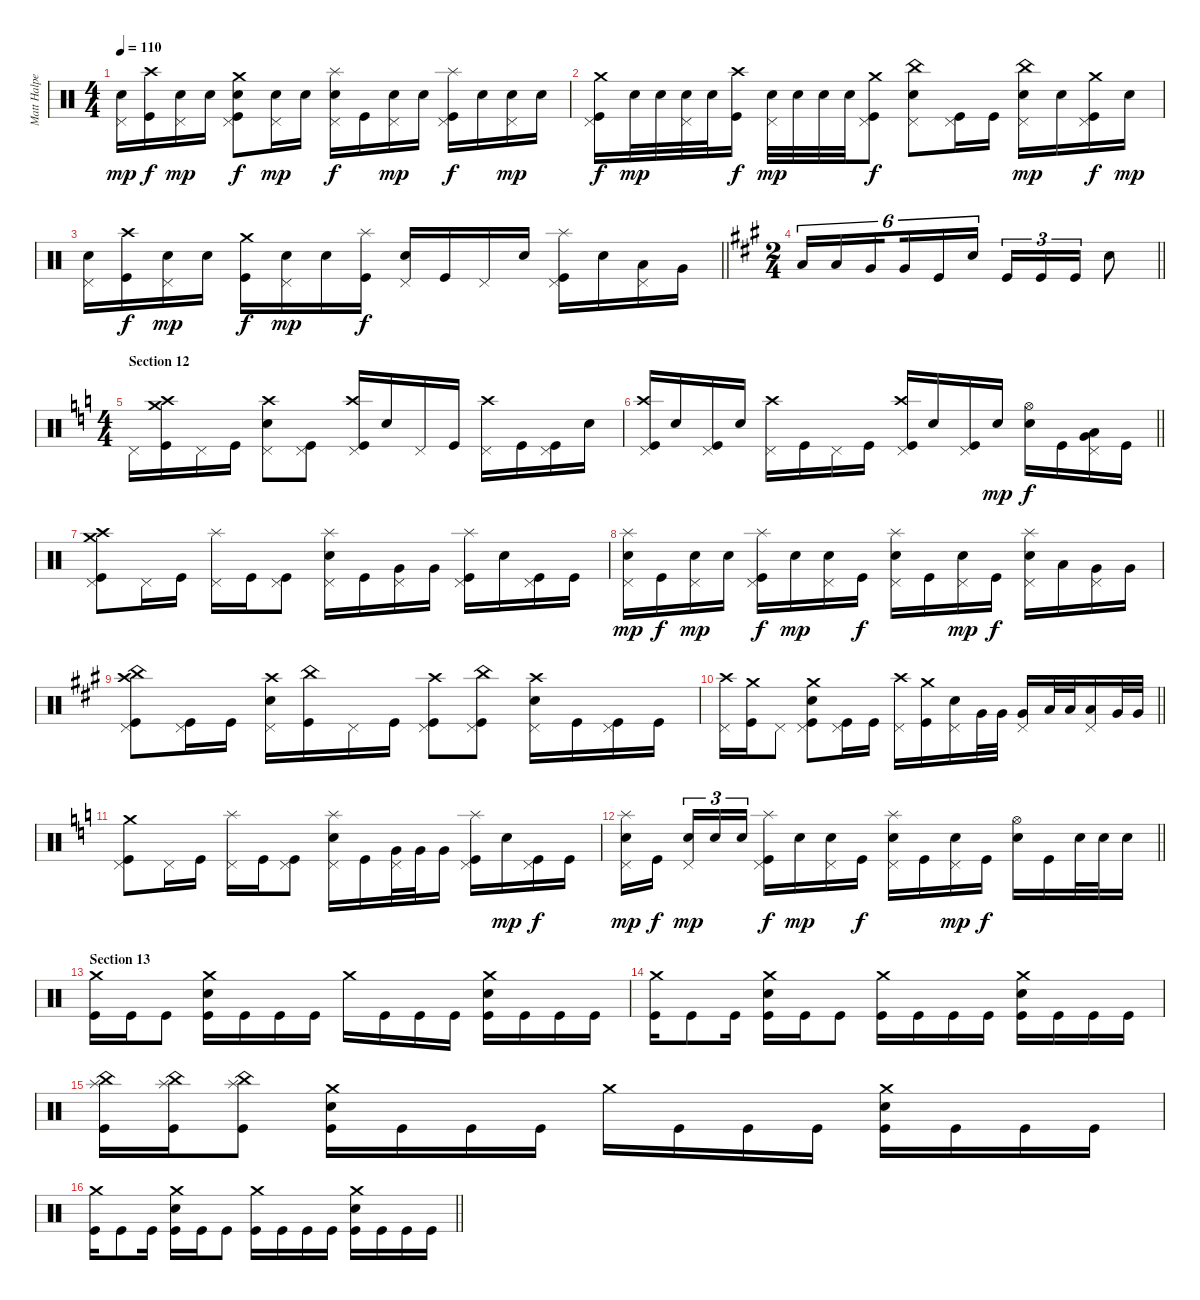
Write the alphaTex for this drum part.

\track ("Matt Halpern" "Matt Halpe") {instrument percussion}
\staff {score}
\articulation defaults
\ts (4 4)
\tempo 110
\clef neutral
\ks c
("Electric Snare (hit)" "Pedal Hi-Hat (hit)").16{dy mp} ("Crash high (hit)" "Kick (hit)").16{dy f} ("Electric Snare (hit)" "Pedal Hi-Hat (hit)").16{dy mp} "Electric Snare (hit)".16 ("Crash medium (hit)" "Electric Snare (hit)" "Kick (hit)" "Pedal Hi-Hat (hit)").8{dy f} ("Electric Snare (hit)" "Pedal Hi-Hat (hit)").16{dy mp} "Electric Snare (hit)".16 ("Splash (hit)" "Electric Snare (hit)" "Pedal Hi-Hat (hit)").16{dy f} "Kick (hit)".16 ("Electric Snare (hit)" "Pedal Hi-Hat (hit)").16{dy mp} "Electric Snare (hit)".16 ("Splash (hit)" "Kick (hit)" "Pedal Hi-Hat (hit)").16{dy f} "Electric Snare (hit)".16 ("Electric Snare (hit)" "Pedal Hi-Hat (hit)").16{dy mp} "Electric Snare (hit)".16 |
("Crash medium (hit)" "Kick (hit)" "Pedal Hi-Hat (hit)").16{dy f} "Electric Snare (hit)".32{dy mp} "Electric Snare (hit)".32 ("Electric Snare (hit)" "Pedal Hi-Hat (hit)").32 "Electric Snare (hit)".32 ("Crash high (hit)" "Kick (hit)").16{dy f} ("Electric Snare (hit)" "Pedal Hi-Hat (hit)").32{dy mp} "Electric Snare (hit)".32 "Electric Snare (hit)".32 "Electric Snare (hit)".32 ("Crash medium (hit)" "Kick (hit)" "Pedal Hi-Hat (hit)").8{dy f} ("China (hit)" "Electric Snare (hit)" "Pedal Hi-Hat (hit)").8 ("Kick (hit)" "Pedal Hi-Hat (hit)").16 "Kick (hit)".16 ("China (hit)" "Electric Snare (hit)" "Pedal Hi-Hat (hit)").16{dy mp} "Electric Snare (hit)".16 ("Crash medium (hit)" "Kick (hit)" "Pedal Hi-Hat (hit)").16{dy f} "Electric Snare (hit)".16{dy mp} |
\barLineRight lightlight
("Electric Snare (hit)" "Pedal Hi-Hat (hit)").16 ("Crash high (hit)" "Kick (hit)").16{dy f} ("Electric Snare (hit)" "Pedal Hi-Hat (hit)").16{dy mp} "Electric Snare (hit)".16 ("Crash medium (hit)" "Kick (hit)").16{dy f} ("Electric Snare (hit)" "Pedal Hi-Hat (hit)").16{dy mp} "Electric Snare (hit)".16 ("Splash (hit)" "Kick (hit)").16{dy f} ("Electric Snare (hit)" "Pedal Hi-Hat (hit)").16 "Kick (hit)".16 "Pedal Hi-Hat (hit)".16 "Electric Snare (hit)".16 ("Splash (hit)" "Kick (hit)" "Pedal Hi-Hat (hit)").16 "Electric Snare (hit)".16 ("Low Tom (hit)" "Pedal Hi-Hat (hit)").16 "Very Low Tom (hit)".16 |
\ts (2 4)
\barLineRight lightlight
\ks f#minor "Low Tom (hit)".16{tu (6 4)} "Low Tom (hit)".16{tu (6 4)} "Very Low Tom (hit)".16{tu (6 4) beam splitsecondary} "Very Low Tom (hit)".16{tu (6 4)} "Kick (hit)".16{tu (6 4)} "Electric Snare (hit)".16{tu (6 4)} "Kick (hit)".16{tu (3 2)} "Kick (hit)".16{tu (3 2)} "Kick (hit)".16{tu (3 2)} "Electric Snare (hit)".8
|
\ts (4 4)
\section ("" "Section 12")
\ks c "Pedal Hi-Hat (hit)".16
("Crash high (hit)" "Crash medium (hit)" "Kick (hit)").16 "Pedal Hi-Hat (hit)".16 "Kick (hit)".16 ("Crash high (hit)" "Electric Snare (hit)" "Pedal Hi-Hat (hit)").8 ("Kick (hit)" "Pedal Hi-Hat (hit)").8 ("Crash high (hit)" "Kick (hit)" "Pedal Hi-Hat (hit)").16 "Electric Snare (hit)".16 "Pedal Hi-Hat (hit)".16 "Kick (hit)".16 ("Crash high (hit)" "Pedal Hi-Hat (hit)").16 "Kick (hit)".16 ("Kick (hit)" "Pedal Hi-Hat (hit)").16 "Electric Snare (hit)".16 |
\barLineRight lightlight
("Crash high (hit)" "Kick (hit)" "Pedal Hi-Hat (hit)").16 "Electric Snare (hit)".16 ("Kick (hit)" "Pedal Hi-Hat (hit)").16 "Electric Snare (hit)".16 ("Crash high (hit)" "Pedal Hi-Hat (hit)").16 "Kick (hit)".16 "Pedal Hi-Hat (hit)".16 "Kick (hit)".16 ("Crash high (hit)" "Kick (hit)" "Pedal Hi-Hat (hit)").16 "Electric Snare (hit)".16 ("Kick (hit)" "Pedal Hi-Hat (hit)").16 "Electric Snare (hit)".16{dy mp} ("Hi-Hat (open)" "Electric Snare (hit)").16{dy f} "Kick (hit)".16 ("Low Tom (hit)" "Very Low Tom (hit)" "Pedal Hi-Hat (hit)").16 "Kick (hit)".16 |
("Crash high (hit)" "Crash medium (hit)" "Kick (hit)" "Pedal Hi-Hat (hit)").8 "Pedal Hi-Hat (hit)".16 "Kick (hit)".16 ("Splash (hit)" "Pedal Hi-Hat (hit)").16 "Kick (hit)".16 ("Kick (hit)" "Pedal Hi-Hat (hit)").8 ("Splash (hit)" "Electric Snare (hit)" "Pedal Hi-Hat (hit)").16 "Kick (hit)".16 ("Very Low Tom (hit)" "Pedal Hi-Hat (hit)").16 "Very Low Tom (hit)".16 ("Splash (hit)" "Kick (hit)" "Pedal Hi-Hat (hit)").16 "Electric Snare (hit)".16 ("Kick (hit)" "Pedal Hi-Hat (hit)").16 "Kick (hit)".16 |
("Splash (hit)" "Electric Snare (hit)" "Pedal Hi-Hat (hit)").16{dy mp} "Kick (hit)".16{dy f} ("Electric Snare (hit)" "Pedal Hi-Hat (hit)").16{dy mp} "Electric Snare (hit)".16 ("Splash (hit)" "Kick (hit)" "Pedal Hi-Hat (hit)").16{dy f} "Electric Snare (hit)".16{dy mp} ("Electric Snare (hit)" "Pedal Hi-Hat (hit)").16 "Kick (hit)".16{dy f} ("Splash (hit)" "Electric Snare (hit)" "Pedal Hi-Hat (hit)").16 "Kick (hit)".16 ("Electric Snare (hit)" "Pedal Hi-Hat (hit)").16{dy mp} "Kick (hit)".16{dy f} ("Splash (hit)" "Electric Snare (hit)" "Pedal Hi-Hat (hit)").16 "Low Tom (hit)".16 ("Very Low Tom (hit)" "Pedal Hi-Hat (hit)").16 "Very Low Tom (hit)".16 |
\ks f#minor
("Crash high (hit)" "China (hit)" "Kick (hit)" "Pedal Hi-Hat (hit)").8 ("Kick (hit)" "Pedal Hi-Hat (hit)").16 "Kick (hit)".16 ("Crash high (hit)" "Electric Snare (hit)" "Pedal Hi-Hat (hit)").16 ("China (hit)" "Kick (hit)").16 "Pedal Hi-Hat (hit)".16 "Kick (hit)".16 ("Crash high (hit)" "Kick (hit)" "Pedal Hi-Hat (hit)").8 ("China (hit)" "Kick (hit)" "Pedal Hi-Hat (hit)").8 ("Crash high (hit)" "Electric Snare (hit)" "Pedal Hi-Hat (hit)").16 "Kick (hit)".16 ("Kick (hit)" "Pedal Hi-Hat (hit)").16 "Kick (hit)".16 |
\barLineRight lightlight
("Crash high (hit)" "Pedal Hi-Hat (hit)").16 ("Crash medium (hit)" "Kick (hit)").16 "Pedal Hi-Hat (hit)".8 ("Crash medium (hit)" "Electric Snare (hit)" "Kick (hit)" "Pedal Hi-Hat (hit)").8 ("Kick (hit)" "Pedal Hi-Hat (hit)").16 "Kick (hit)".16 ("Crash high (hit)" "Pedal Hi-Hat (hit)").16 ("Crash medium (hit)" "Kick (hit)").16 ("Electric Snare (hit)" "Pedal Hi-Hat (hit)").16 "Very Low Tom (hit)".32 "Very Low Tom (hit)".32 ("Very Low Tom (hit)" "Pedal Hi-Hat (hit)").16 "Low Tom (hit)".32 "Low Tom (hit)".32 ("Low Tom (hit)" "Pedal Hi-Hat (hit)").16 "Very Low Tom (hit)".32 "Very Low Tom (hit)".32 |
\ks c
("Crash medium (hit)" "Kick (hit)" "Pedal Hi-Hat (hit)").8 "Pedal Hi-Hat (hit)".16 "Kick (hit)".16 ("Splash (hit)" "Pedal Hi-Hat (hit)").16 "Kick (hit)".16 ("Kick (hit)" "Pedal Hi-Hat (hit)").8 ("Splash (hit)" "Electric Snare (hit)" "Pedal Hi-Hat (hit)").16 "Kick (hit)".16 ("Very Low Tom (hit)" "Pedal Hi-Hat (hit)").32 "Very Low Tom (hit)".32 "Very Low Tom (hit)".16 ("Splash (hit)" "Kick (hit)" "Pedal Hi-Hat (hit)").16 "Electric Snare (hit)".16{dy mp} ("Kick (hit)" "Pedal Hi-Hat (hit)").16{dy f} "Kick (hit)".16 |
\barLineRight lightlight
("Splash (hit)" "Electric Snare (hit)" "Pedal Hi-Hat (hit)").16{dy mp} "Kick (hit)".16{dy f beam splitsecondary} ("Electric Snare (hit)" "Pedal Hi-Hat (hit)").16{tu (3 2) dy mp} "Electric Snare (hit)".16{tu (3 2)} "Electric Snare (hit)".16{tu (3 2)} ("Splash (hit)" "Kick (hit)" "Pedal Hi-Hat (hit)").16{dy f} "Electric Snare (hit)".16{dy mp} ("Electric Snare (hit)" "Pedal Hi-Hat (hit)").16 "Kick (hit)".16{dy f} ("Splash (hit)" "Electric Snare (hit)" "Pedal Hi-Hat (hit)").16 "Kick (hit)".16 ("Electric Snare (hit)" "Pedal Hi-Hat (hit)").16{dy mp} "Kick (hit)".16{dy f} ("Hi-Hat (open)" "Electric Snare (hit)").16 "Kick (hit)".16 "Electric Snare (hit)".32 "Electric Snare (hit)".32 "Electric Snare (hit)".16 |
\section ("" "Section 13")
("Crash medium (hit)" "Kick (hit)").16 "Kick (hit)".16 "Kick (hit)".8 ("Crash medium (hit)" "Electric Snare (hit)" "Kick (hit)").16 "Kick (hit)".16 "Kick (hit)".16 "Kick (hit)".16 "Crash medium (hit)".16 "Kick (hit)".16 "Kick (hit)".16 "Kick (hit)".16 ("Crash medium (hit)" "Electric Snare (hit)" "Kick (hit)").16 "Kick (hit)".16 "Kick (hit)".16 "Kick (hit)".16 |
("Crash medium (hit)" "Kick (hit)").16 "Kick (hit)".8 "Kick (hit)".16 ("Crash medium (hit)" "Electric Snare (hit)" "Kick (hit)").16 "Kick (hit)".16 "Kick (hit)".8 ("Crash medium (hit)" "Kick (hit)").16 "Kick (hit)".16 "Kick (hit)".16 "Kick (hit)".16 ("Crash medium (hit)" "Electric Snare (hit)" "Kick (hit)").16 "Kick (hit)".16 "Kick (hit)".16 "Kick (hit)".16 |
("China (hit)" "Splash (hit)" "Kick (hit)").16 ("China (hit)" "Splash (hit)" "Kick (hit)").16 ("China (hit)" "Splash (hit)" "Kick (hit)").8 ("Crash medium (hit)" "Electric Snare (hit)" "Kick (hit)").16 "Kick (hit)".16 "Kick (hit)".16 "Kick (hit)".16 "Crash medium (hit)".16 "Kick (hit)".16 "Kick (hit)".16 "Kick (hit)".16 ("Crash medium (hit)" "Electric Snare (hit)" "Kick (hit)").16 "Kick (hit)".16 "Kick (hit)".16 "Kick (hit)".16 |
\barLineRight lightlight
("Crash medium (hit)" "Kick (hit)").16 "Kick (hit)".8 "Kick (hit)".16 ("Crash medium (hit)" "Electric Snare (hit)" "Kick (hit)").16 "Kick (hit)".16 "Kick (hit)".8 ("Crash medium (hit)" "Kick (hit)").16 "Kick (hit)".16 "Kick (hit)".16 "Kick (hit)".16 ("Crash medium (hit)" "Electric Snare (hit)" "Kick (hit)").16 "Kick (hit)".16 "Kick (hit)".16 "Kick (hit)".16
